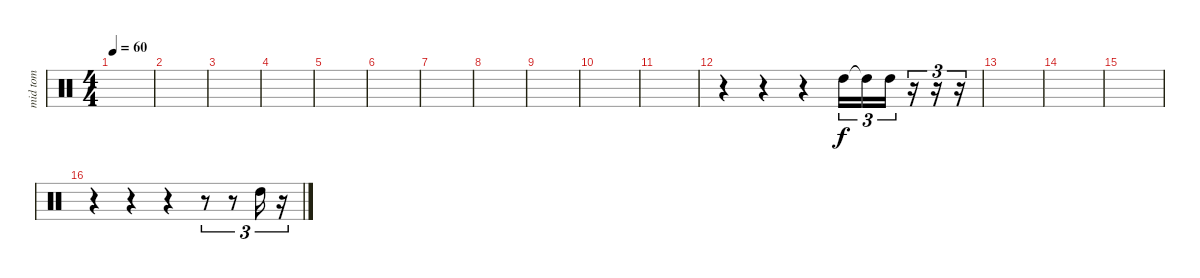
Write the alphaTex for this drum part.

\track ("mid tom" "mid tom") {instrument percussion}
\staff {score}
\articulation defaults
\ts (4 4)
\tempo 60
\clef neutral
\ks c
|
|
|
|
|
|
|
|
|
|
|
r.4 r.4 r.4 "High Tom (hit)".16{tu (3 2)} "High Tom (hit)"{t}.16{tu (3 2)} "High Tom (hit)".16{tu (3 2)} r.16{tu (3 2)} r.16{tu (3 2)} r.16{tu (3 2)} |
|
|
|
r.4 r.4 r.4 r.8{tu (3 2)} r.8{tu (3 2)} "High Tom (hit)".16{tu (3 2)} r.16{tu (3 2)}
